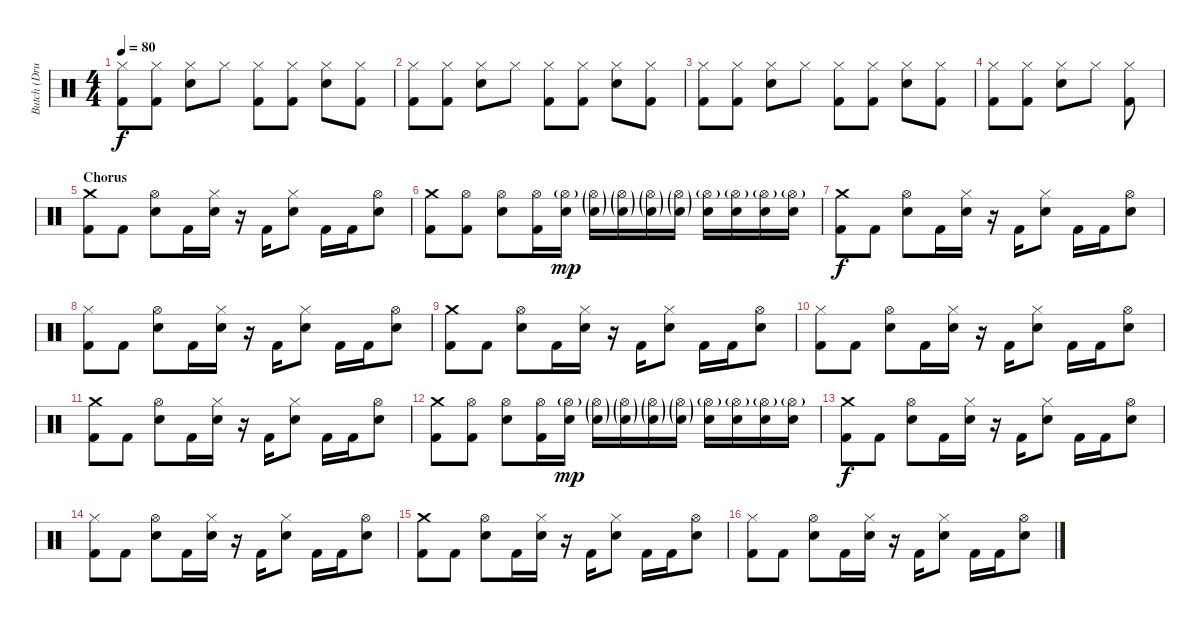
\track ("Butch (Drums)" "Butch (Dru") {instrument percussion}
\staff {score}
\articulation defaults
\ts (4 4)
\tempo 80
\clef neutral
\ks c
("Hi-Hat (closed)" "Kick (hit) 2").8{dy f} ("Hi-Hat (closed)" "Kick (hit) 2").8 ("Hi-Hat (closed)" "Snare (hit) 2").8 "Hi-Hat (closed)".8 ("Hi-Hat (closed)" "Kick (hit) 2").8 ("Hi-Hat (closed)" "Kick (hit) 2").8 ("Hi-Hat (closed)" "Snare (hit) 2").8 ("Hi-Hat (closed)" "Kick (hit) 2").8 |
("Hi-Hat (closed)" "Kick (hit) 2").8 ("Hi-Hat (closed)" "Kick (hit) 2").8 ("Hi-Hat (closed)" "Snare (hit) 2").8 "Hi-Hat (closed)".8 ("Hi-Hat (closed)" "Kick (hit) 2").8 ("Hi-Hat (closed)" "Kick (hit) 2").8 ("Hi-Hat (closed)" "Snare (hit) 2").8 ("Hi-Hat (closed)" "Kick (hit) 2").8 |
("Hi-Hat (closed)" "Kick (hit) 2").8 ("Hi-Hat (closed)" "Kick (hit) 2").8 ("Hi-Hat (closed)" "Snare (hit) 2").8 "Hi-Hat (closed)".8 ("Hi-Hat (closed)" "Kick (hit) 2").8 ("Hi-Hat (closed)" "Kick (hit) 2").8 ("Hi-Hat (closed)" "Snare (hit) 2").8 ("Hi-Hat (closed)" "Kick (hit) 2").8 |
("Hi-Hat (closed)" "Kick (hit) 2").8 ("Hi-Hat (closed)" "Kick (hit) 2").8 ("Hi-Hat (closed)" "Snare (hit) 2").8 "Hi-Hat (closed)".8 ("Hi-Hat (closed)" "Kick (hit) 2").8 |
\section ("" "Chorus")
("Crash medium (hit)" "Kick (hit) 2").8 "Kick (hit) 2".8 ("Hi-Hat (open)" "Electric Snare (hit)").8 "Kick (hit) 2".16 ("Hi-Hat (closed)" "Electric Snare (hit)").16 r.16 "Kick (hit) 2".16 ("Hi-Hat (closed)" "Electric Snare (hit)").8 "Kick (hit) 2".16 "Kick (hit) 2".16 ("Hi-Hat (open)" "Electric Snare (hit)").8 |
("Crash medium (hit)" "Kick (hit) 2").8 ("Hi-Hat (open)" "Kick (hit) 2").8 ("Hi-Hat (open)" "Electric Snare (hit)").8 ("Hi-Hat (open)" "Kick (hit) 2").16 ("Hi-Hat (open)"{g} "Electric Snare (hit)").16{dy mp} ("Hi-Hat (open)"{g} "Electric Snare (hit)"{g}).16 ("Hi-Hat (open)"{g} "Electric Snare (hit)"{g}).16 ("Hi-Hat (open)"{g} "Electric Snare (hit)"{g}).16 ("Hi-Hat (open)"{g} "Electric Snare (hit)"{g}).16 ("Hi-Hat (open)"{g} "Electric Snare (hit)").16 ("Hi-Hat (open)"{g} "Electric Snare (hit)").16 ("Hi-Hat (open)"{g} "Electric Snare (hit)").16 ("Hi-Hat (open)"{g} "Electric Snare (hit)").16 |
("Crash medium (hit)" "Kick (hit) 2").8{dy f} "Kick (hit) 2".8 ("Hi-Hat (open)" "Electric Snare (hit)").8 "Kick (hit) 2".16 ("Hi-Hat (closed)" "Electric Snare (hit)").16 r.16 "Kick (hit) 2".16 ("Hi-Hat (closed)" "Electric Snare (hit)").8 "Kick (hit) 2".16 "Kick (hit) 2".16 ("Hi-Hat (open)" "Electric Snare (hit)").8 |
("Hi-Hat (closed)" "Kick (hit) 2").8 "Kick (hit) 2".8 ("Hi-Hat (open)" "Electric Snare (hit)").8 "Kick (hit) 2".16 ("Hi-Hat (closed)" "Electric Snare (hit)").16 r.16 "Kick (hit) 2".16 ("Hi-Hat (closed)" "Electric Snare (hit)").8 "Kick (hit) 2".16 "Kick (hit) 2".16 ("Hi-Hat (open)" "Electric Snare (hit)").8 |
("Crash medium (hit)" "Kick (hit) 2").8 "Kick (hit) 2".8 ("Hi-Hat (open)" "Electric Snare (hit)").8 "Kick (hit) 2".16 ("Hi-Hat (closed)" "Electric Snare (hit)").16 r.16 "Kick (hit) 2".16 ("Hi-Hat (closed)" "Electric Snare (hit)").8 "Kick (hit) 2".16 "Kick (hit) 2".16 ("Hi-Hat (open)" "Electric Snare (hit)").8 |
("Hi-Hat (closed)" "Kick (hit) 2").8 "Kick (hit) 2".8 ("Hi-Hat (open)" "Electric Snare (hit)").8 "Kick (hit) 2".16 ("Hi-Hat (closed)" "Electric Snare (hit)").16 r.16 "Kick (hit) 2".16 ("Hi-Hat (closed)" "Electric Snare (hit)").8 "Kick (hit) 2".16 "Kick (hit) 2".16 ("Hi-Hat (open)" "Electric Snare (hit)").8 |
("Crash medium (hit)" "Kick (hit) 2").8 "Kick (hit) 2".8 ("Hi-Hat (open)" "Electric Snare (hit)").8 "Kick (hit) 2".16 ("Hi-Hat (closed)" "Electric Snare (hit)").16 r.16 "Kick (hit) 2".16 ("Hi-Hat (closed)" "Electric Snare (hit)").8 "Kick (hit) 2".16 "Kick (hit) 2".16 ("Hi-Hat (open)" "Electric Snare (hit)").8 |
("Crash medium (hit)" "Kick (hit) 2").8 ("Hi-Hat (open)" "Kick (hit) 2").8 ("Hi-Hat (open)" "Electric Snare (hit)").8 ("Hi-Hat (open)" "Kick (hit) 2").16 ("Hi-Hat (open)"{g} "Electric Snare (hit)").16{dy mp} ("Hi-Hat (open)"{g} "Electric Snare (hit)"{g}).16 ("Hi-Hat (open)"{g} "Electric Snare (hit)"{g}).16 ("Hi-Hat (open)"{g} "Electric Snare (hit)"{g}).16 ("Hi-Hat (open)"{g} "Electric Snare (hit)"{g}).16 ("Hi-Hat (open)"{g} "Electric Snare (hit)").16 ("Hi-Hat (open)"{g} "Electric Snare (hit)").16 ("Hi-Hat (open)"{g} "Electric Snare (hit)").16 ("Hi-Hat (open)"{g} "Electric Snare (hit)").16 |
("Crash medium (hit)" "Kick (hit) 2").8{dy f} "Kick (hit) 2".8 ("Hi-Hat (open)" "Electric Snare (hit)").8 "Kick (hit) 2".16 ("Hi-Hat (closed)" "Electric Snare (hit)").16 r.16 "Kick (hit) 2".16 ("Hi-Hat (closed)" "Electric Snare (hit)").8 "Kick (hit) 2".16 "Kick (hit) 2".16 ("Hi-Hat (open)" "Electric Snare (hit)").8 |
("Hi-Hat (closed)" "Kick (hit) 2").8 "Kick (hit) 2".8 ("Hi-Hat (open)" "Electric Snare (hit)").8 "Kick (hit) 2".16 ("Hi-Hat (closed)" "Electric Snare (hit)").16 r.16 "Kick (hit) 2".16 ("Hi-Hat (closed)" "Electric Snare (hit)").8 "Kick (hit) 2".16 "Kick (hit) 2".16 ("Hi-Hat (open)" "Electric Snare (hit)").8 |
("Crash medium (hit)" "Kick (hit) 2").8 "Kick (hit) 2".8 ("Hi-Hat (open)" "Electric Snare (hit)").8 "Kick (hit) 2".16 ("Hi-Hat (closed)" "Electric Snare (hit)").16 r.16 "Kick (hit) 2".16 ("Hi-Hat (closed)" "Electric Snare (hit)").8 "Kick (hit) 2".16 "Kick (hit) 2".16 ("Hi-Hat (open)" "Electric Snare (hit)").8 |
("Hi-Hat (closed)" "Kick (hit) 2").8 "Kick (hit) 2".8 ("Hi-Hat (open)" "Electric Snare (hit)").8 "Kick (hit) 2".16 ("Hi-Hat (closed)" "Electric Snare (hit)").16 r.16 "Kick (hit) 2".16 ("Hi-Hat (closed)" "Electric Snare (hit)").8 "Kick (hit) 2".16 "Kick (hit) 2".16 ("Hi-Hat (open)" "Electric Snare (hit)").8
